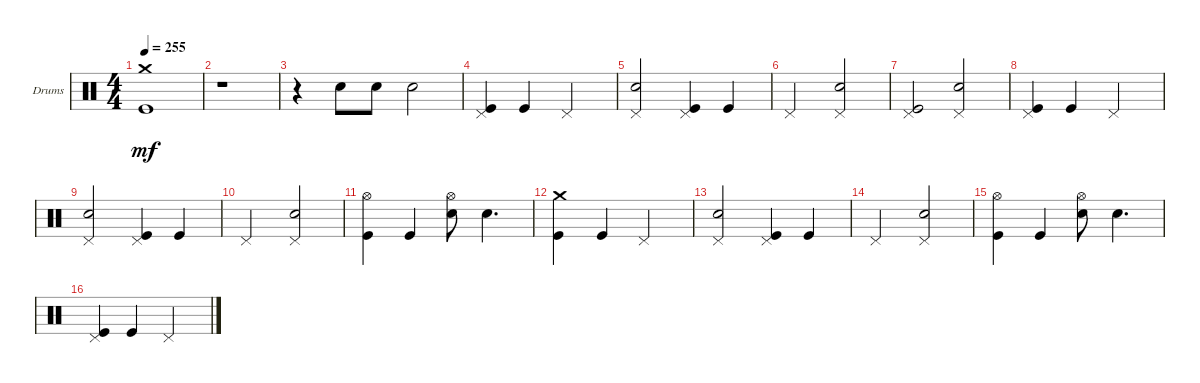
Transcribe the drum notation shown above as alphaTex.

\bracketExtendMode groupsimilarinstruments
\firstSystemTrackNameOrientation horizontal
\otherSystemsTrackNameOrientation horizontal
\track ("Drums" "Drums") {instrument percussion}
\staff {score}
\articulation defaults
\ts (4 4)
\tempo 255
\clef neutral
\ks c
("Kick (hit)" "Crash medium (hit)").1{dy mf} |
r.1 |
r.4 "Snare (hit) 2".8 "Snare (hit) 2".8 "Snare (hit) 2".2 |
("Kick (hit)" "Pedal Hi-Hat (hit)").4 "Kick (hit)".4 "Pedal Hi-Hat (hit)".2 |
("Snare (hit) 2" "Pedal Hi-Hat (hit)").2 ("Kick (hit)" "Pedal Hi-Hat (hit)").4 "Kick (hit)".4 |
"Pedal Hi-Hat (hit)".2 ("Snare (hit) 2" "Pedal Hi-Hat (hit)").2 |
("Kick (hit)" "Pedal Hi-Hat (hit)").2 ("Snare (hit) 2" "Pedal Hi-Hat (hit)").2 |
("Kick (hit)" "Pedal Hi-Hat (hit)").4 "Kick (hit)".4 "Pedal Hi-Hat (hit)".2 |
("Snare (hit) 2" "Pedal Hi-Hat (hit)").2 ("Kick (hit)" "Pedal Hi-Hat (hit)").4 "Kick (hit)".4 |
"Pedal Hi-Hat (hit)".2 ("Snare (hit) 2" "Pedal Hi-Hat (hit)").2 |
("Kick (hit)" "Hi-Hat (open)").4 "Kick (hit)".4 ("Snare (hit) 2" "Hi-Hat (open)").8 "Snare (hit) 2".4{d} |
("Kick (hit)" "Crash medium (hit)").4 "Kick (hit)".4 "Pedal Hi-Hat (hit)".2 |
("Snare (hit) 2" "Pedal Hi-Hat (hit)").2 ("Kick (hit)" "Pedal Hi-Hat (hit)").4 "Kick (hit)".4 |
"Pedal Hi-Hat (hit)".2 ("Snare (hit) 2" "Pedal Hi-Hat (hit)").2 |
("Kick (hit)" "Hi-Hat (open)").4 "Kick (hit)".4 ("Snare (hit) 2" "Hi-Hat (open)").8 "Snare (hit) 2".4{d} |
("Kick (hit)" "Pedal Hi-Hat (hit)").4 "Kick (hit)".4 "Pedal Hi-Hat (hit)".2
